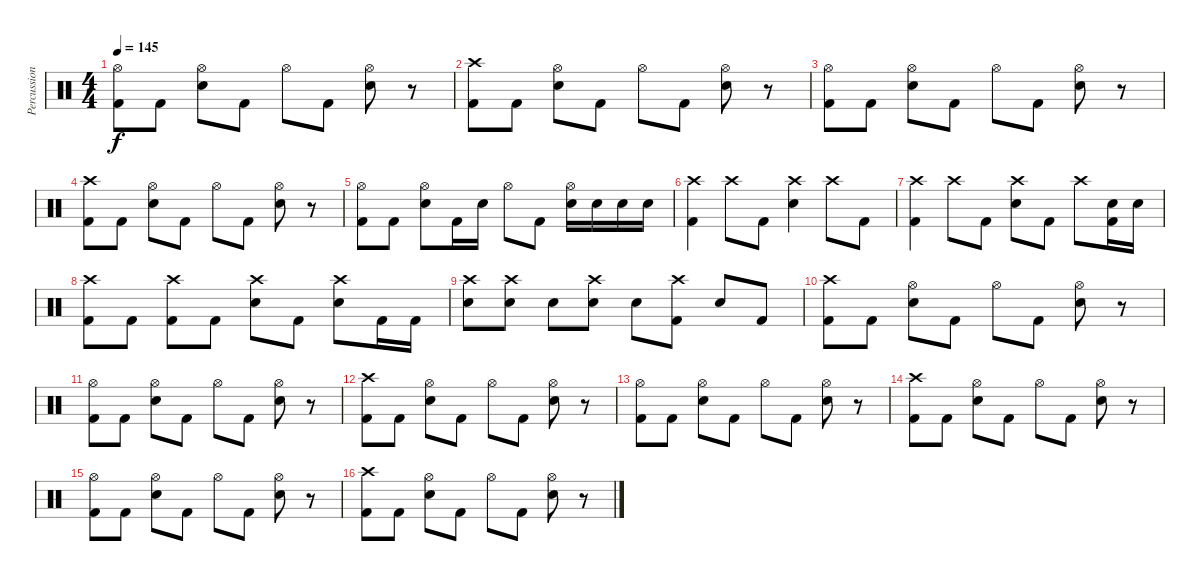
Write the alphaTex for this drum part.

\track ("Percussion" "Percussion") {instrument percussion}
\staff {score}
\articulation defaults
\ts (4 4)
\tempo 145
\clef neutral
\ks c
("Hi-Hat (open)" "Kick (hit) 2").8{dy f} "Kick (hit) 2".8 ("Hi-Hat (open)" "Electric Snare (hit)").8 "Kick (hit) 2".8 "Hi-Hat (open)".8 "Kick (hit) 2".8 ("Hi-Hat (open)" "Electric Snare (hit)").8 r.8 |
("Crash high (hit)" "Kick (hit) 2").8 "Kick (hit) 2".8 ("Electric Snare (hit)" "Hi-Hat (open)").8 "Kick (hit) 2".8 "Hi-Hat (open)".8 "Kick (hit) 2".8 ("Hi-Hat (open)" "Electric Snare (hit)").8 r.8 |
("Hi-Hat (open)" "Kick (hit) 2").8 "Kick (hit) 2".8 ("Hi-Hat (open)" "Electric Snare (hit)").8 "Kick (hit) 2".8 "Hi-Hat (open)".8 "Kick (hit) 2".8 ("Hi-Hat (open)" "Electric Snare (hit)").8 r.8 |
("Crash high (hit)" "Kick (hit) 2").8 "Kick (hit) 2".8 ("Electric Snare (hit)" "Hi-Hat (open)").8 "Kick (hit) 2".8 "Hi-Hat (open)".8 "Kick (hit) 2".8 ("Hi-Hat (open)" "Electric Snare (hit)").8 r.8 |
("Hi-Hat (open)" "Kick (hit) 2").8 "Kick (hit) 2".8 ("Hi-Hat (open)" "Electric Snare (hit)").8 "Kick (hit) 2".16 "Electric Snare (hit)".16 "Hi-Hat (open)".8 "Kick (hit) 2".8 ("Hi-Hat (open)" "Electric Snare (hit)").16 "Electric Snare (hit)".16 "Electric Snare (hit)".16 "Electric Snare (hit)".16 |
("Crash high (hit)" "Kick (hit) 2").4 "Crash high (hit)".8 "Kick (hit) 2".8 ("Crash high (hit)" "Electric Snare (hit)").4 "Crash high (hit)".8 "Kick (hit) 2".8 |
("Crash high (hit)" "Kick (hit) 2").4 "Crash high (hit)".8 "Kick (hit) 2".8 ("Crash high (hit)" "Electric Snare (hit)").8 "Kick (hit) 2".8 "Crash high (hit)".8 ("Kick (hit) 2" "Electric Snare (hit)").16 "Electric Snare (hit)".16 |
("Crash high (hit)" "Kick (hit) 2").8 "Kick (hit) 2".8 ("Crash high (hit)" "Kick (hit) 2").8 "Kick (hit) 2".8 ("Crash high (hit)" "Electric Snare (hit)").8 "Kick (hit) 2".8 ("Crash high (hit)" "Electric Snare (hit)").8 "Kick (hit) 2".16 "Kick (hit) 2".16 |
("Crash high (hit)" "Electric Snare (hit)").8 ("Crash high (hit)" "Electric Snare (hit)").8 "Electric Snare (hit)".8 ("Crash high (hit)" "Electric Snare (hit)").8 "Electric Snare (hit)".8 ("Crash high (hit)" "Kick (hit) 2").8 "Electric Snare (hit)".8 "Kick (hit) 2".8 |
("Crash high (hit)" "Kick (hit) 2").8 "Kick (hit) 2".8 ("Electric Snare (hit)" "Hi-Hat (open)").8 "Kick (hit) 2".8 "Hi-Hat (open)".8 "Kick (hit) 2".8 ("Hi-Hat (open)" "Electric Snare (hit)").8 r.8 |
("Hi-Hat (open)" "Kick (hit) 2").8 "Kick (hit) 2".8 ("Hi-Hat (open)" "Electric Snare (hit)").8 "Kick (hit) 2".8 "Hi-Hat (open)".8 "Kick (hit) 2".8 ("Hi-Hat (open)" "Electric Snare (hit)").8 r.8 |
("Crash high (hit)" "Kick (hit) 2").8 "Kick (hit) 2".8 ("Electric Snare (hit)" "Hi-Hat (open)").8 "Kick (hit) 2".8 "Hi-Hat (open)".8 "Kick (hit) 2".8 ("Hi-Hat (open)" "Electric Snare (hit)").8 r.8 |
("Hi-Hat (open)" "Kick (hit) 2").8 "Kick (hit) 2".8 ("Hi-Hat (open)" "Electric Snare (hit)").8 "Kick (hit) 2".8 "Hi-Hat (open)".8 "Kick (hit) 2".8 ("Hi-Hat (open)" "Electric Snare (hit)").8 r.8 |
("Crash high (hit)" "Kick (hit) 2").8 "Kick (hit) 2".8 ("Electric Snare (hit)" "Hi-Hat (open)").8 "Kick (hit) 2".8 "Hi-Hat (open)".8 "Kick (hit) 2".8 ("Hi-Hat (open)" "Electric Snare (hit)").8 r.8 |
("Hi-Hat (open)" "Kick (hit) 2").8 "Kick (hit) 2".8 ("Hi-Hat (open)" "Electric Snare (hit)").8 "Kick (hit) 2".8 "Hi-Hat (open)".8 "Kick (hit) 2".8 ("Hi-Hat (open)" "Electric Snare (hit)").8 r.8 |
("Crash high (hit)" "Kick (hit) 2").8 "Kick (hit) 2".8 ("Electric Snare (hit)" "Hi-Hat (open)").8 "Kick (hit) 2".8 "Hi-Hat (open)".8 "Kick (hit) 2".8 ("Hi-Hat (open)" "Electric Snare (hit)").8 r.8
